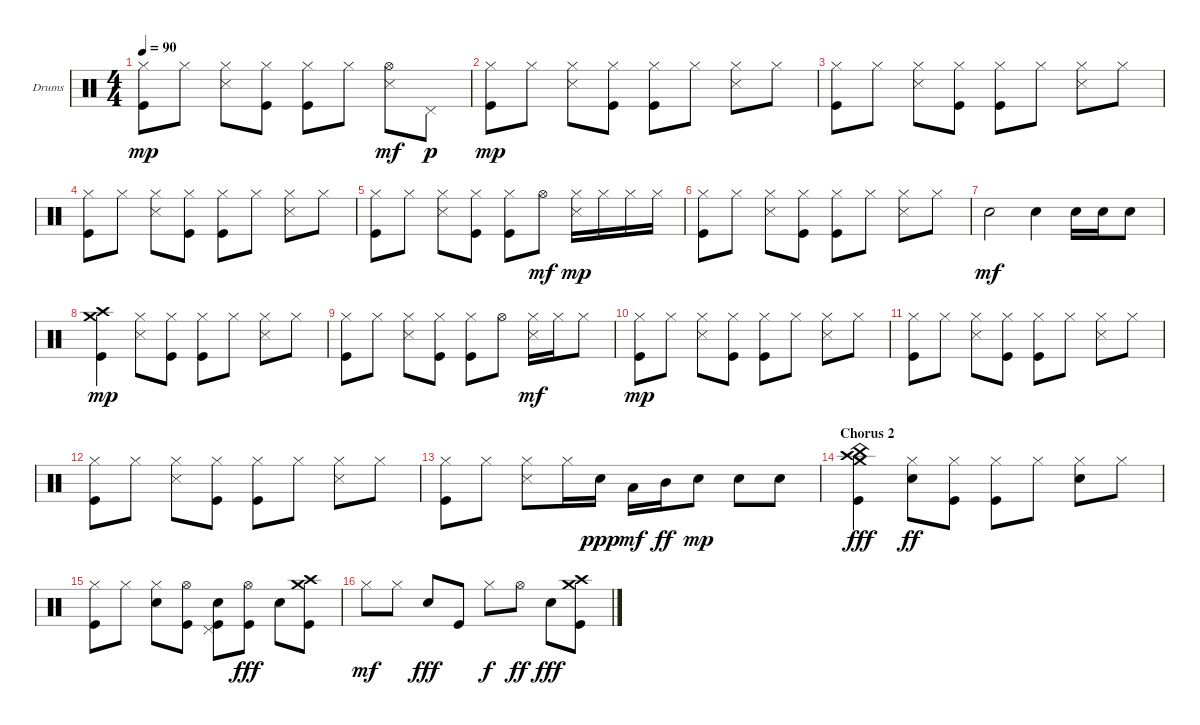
\bracketExtendMode groupsimilarinstruments
\firstSystemTrackNameOrientation horizontal
\otherSystemsTrackNameOrientation horizontal
\track ("Drumkit" "Drums") {instrument percussion}
\staff {score}
\articulation defaults
\ts (4 4)
\tempo 90
\clef neutral
\ks c
("Hi-Hat (closed)" "Kick (hit)").8{dy mp} "Hi-Hat (closed)".8 ("Hi-Hat (closed)" "Snare (side stick) 3").8 ("Hi-Hat (closed)" "Kick (hit)").8 ("Hi-Hat (closed)" "Kick (hit)").8 "Hi-Hat (closed)".8 ("Hi-Hat (open)" "Snare (side stick) 3").8{dy mf} "Pedal Hi-Hat (hit)".8{dy p} |
("Hi-Hat (closed)" "Kick (hit)").8{dy mp} "Hi-Hat (closed)".8 ("Hi-Hat (closed)" "Snare (side stick) 3").8 ("Hi-Hat (closed)" "Kick (hit)").8 ("Hi-Hat (closed)" "Kick (hit)").8 "Hi-Hat (closed)".8 ("Hi-Hat (closed)" "Snare (side stick) 3").8 "Hi-Hat (closed)".8 |
("Hi-Hat (closed)" "Kick (hit)").8 "Hi-Hat (closed)".8 ("Hi-Hat (closed)" "Snare (side stick) 3").8 ("Hi-Hat (closed)" "Kick (hit)").8 ("Hi-Hat (closed)" "Kick (hit)").8 "Hi-Hat (closed)".8 ("Hi-Hat (closed)" "Snare (side stick) 3").8 "Hi-Hat (closed)".8 |
("Hi-Hat (closed)" "Kick (hit)").8 "Hi-Hat (closed)".8 ("Hi-Hat (closed)" "Snare (side stick) 3").8 ("Hi-Hat (closed)" "Kick (hit)").8 ("Hi-Hat (closed)" "Kick (hit)").8 "Hi-Hat (closed)".8 ("Hi-Hat (closed)" "Snare (side stick) 3").8 "Hi-Hat (closed)".8 |
("Hi-Hat (closed)" "Kick (hit)").8 "Hi-Hat (closed)".8 ("Hi-Hat (closed)" "Snare (side stick) 3").8 ("Hi-Hat (closed)" "Kick (hit)").8 ("Hi-Hat (closed)" "Kick (hit)").8 "Hi-Hat (open)".8{dy mf} ("Hi-Hat (closed)" "Snare (side stick) 3").16{dy mp} "Hi-Hat (closed)".16 "Hi-Hat (closed)".16 "Hi-Hat (closed)".16 |
("Hi-Hat (closed)" "Kick (hit)").8 "Hi-Hat (closed)".8 ("Hi-Hat (closed)" "Snare (side stick) 3").8 ("Hi-Hat (closed)" "Kick (hit)").8 ("Hi-Hat (closed)" "Kick (hit)").8 "Hi-Hat (closed)".8 ("Hi-Hat (closed)" "Snare (side stick) 3").8 "Hi-Hat (closed)".8 |
"Snare (hit) 2".2{dy mf} "Snare (hit) 2".4 "Snare (hit) 2".16 "Snare (hit) 2".16 "Snare (hit) 2".8 |
("Crash high (hit)" "Crash medium (hit)" "Kick (hit)").4{dy mp} ("Hi-Hat (closed)" "Snare (side stick) 3").8 ("Hi-Hat (closed)" "Kick (hit)").8 ("Hi-Hat (closed)" "Kick (hit)").8 "Hi-Hat (closed)".8 ("Hi-Hat (closed)" "Snare (side stick) 3").8 "Hi-Hat (closed)".8 |
("Hi-Hat (closed)" "Kick (hit)").8 "Hi-Hat (closed)".8 ("Hi-Hat (closed)" "Snare (side stick) 3").8 ("Hi-Hat (closed)" "Kick (hit)").8 ("Hi-Hat (closed)" "Kick (hit)").8 "Hi-Hat (open)".8 ("Hi-Hat (closed)" "Snare (side stick) 3").16{dy mf} "Hi-Hat (closed)".16 "Hi-Hat (closed)".8 |
("Hi-Hat (closed)" "Kick (hit)").8{dy mp} "Hi-Hat (closed)".8 ("Hi-Hat (closed)" "Snare (side stick) 3").8 ("Hi-Hat (closed)" "Kick (hit)").8 ("Hi-Hat (closed)" "Kick (hit)").8 "Hi-Hat (closed)".8 ("Hi-Hat (closed)" "Snare (side stick) 3").8 "Hi-Hat (closed)".8 |
("Hi-Hat (closed)" "Kick (hit)").8 "Hi-Hat (closed)".8 ("Hi-Hat (closed)" "Snare (side stick) 3").8 ("Hi-Hat (closed)" "Kick (hit)").8 ("Hi-Hat (closed)" "Kick (hit)").8 "Hi-Hat (closed)".8 ("Hi-Hat (closed)" "Snare (side stick) 3").8 "Hi-Hat (closed)".8 |
("Hi-Hat (closed)" "Kick (hit)").8 "Hi-Hat (closed)".8 ("Hi-Hat (closed)" "Snare (side stick) 3").8 ("Hi-Hat (closed)" "Kick (hit)").8 ("Hi-Hat (closed)" "Kick (hit)").8 "Hi-Hat (closed)".8 ("Hi-Hat (closed)" "Snare (side stick) 3").8 "Hi-Hat (closed)".8 |
("Hi-Hat (closed)" "Kick (hit)").8 "Hi-Hat (closed)".8 ("Hi-Hat (closed)" "Snare (side stick) 3").8 "Hi-Hat (closed)".16 "Snare (hit) 2".16{dy ppp} "Low Tom (hit)".16{dy mf} "Mid Tom (hit)".16{dy ff} "Snare (hit) 2".8{dy mp} "Snare (hit) 2".8 "Snare (hit) 2".8 |
\section ("" "Chorus 2")
("Crash high (hit)" "Crash medium (hit)" "China (hit)" "Kick (hit)").4{dy fff} ("Hi-Hat (closed)" "Snare (hit) 2").8{dy ff} ("Hi-Hat (closed)" "Kick (hit)").8 ("Hi-Hat (closed)" "Kick (hit)").8 "Hi-Hat (closed)".8 ("Hi-Hat (closed)" "Snare (hit) 2").8 "Hi-Hat (closed)".8 |
("Hi-Hat (closed)" "Kick (hit)").8 "Hi-Hat (closed)".8 ("Hi-Hat (closed)" "Snare (hit) 2").8 ("Hi-Hat (open)" "Kick (hit)").8 ("Pedal Hi-Hat (hit)" "Snare (hit) 2" "Kick (hit)").8 ("Hi-Hat (open)" "Kick (hit)").8{dy fff} "Snare (hit) 2".8 ("Crash high (hit)" "Crash medium (hit)" "Kick (hit)").8 |
"Hi-Hat (closed)".8{dy mf} "Hi-Hat (closed)".8 "Snare (hit) 2".8{dy fff} "Kick (hit)".8 "Hi-Hat (closed)".8{dy f} "Hi-Hat (open)".8{dy ff} "Snare (hit) 2".8{dy fff} ("Crash high (hit)" "Crash medium (hit)" "Kick (hit)").8
